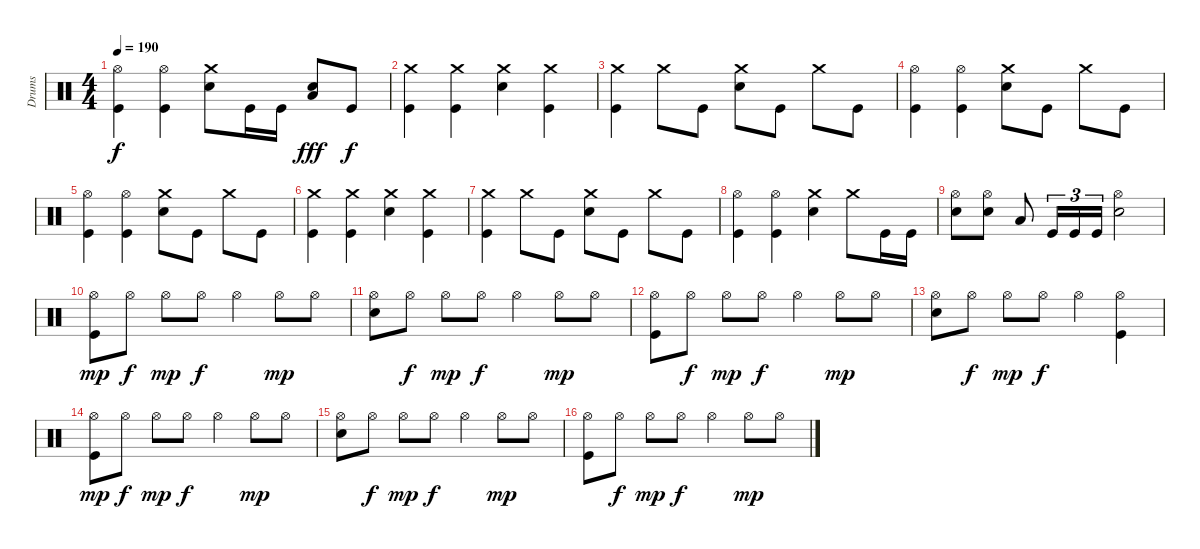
\track ("Drums" "Drums") {instrument percussion}
\staff {score}
\articulation defaults
\ts (4 4)
\tempo 190
\clef neutral
\ks c
("Hi-Hat (open)" "Kick (hit)").4{dy f} ("Hi-Hat (open)" "Kick (hit)").4 ("Crash medium (hit)" "Electric Snare (hit)").8 "Kick (hit)".16 "Kick (hit)".16 ("Low Tom (hit)" "Electric Snare (hit)").8{dy fff} "Kick (hit)".8{dy f} |
("Crash medium (hit)" "Kick (hit)").4 ("Crash medium (hit)" "Kick (hit)").4 ("Crash medium (hit)" "Electric Snare (hit)").4 ("Crash medium (hit)" "Kick (hit)").4 |
("Crash medium (hit)" "Kick (hit)").4 "Crash medium (hit)".8 "Kick (hit)".8 ("Crash medium (hit)" "Electric Snare (hit)").8 "Kick (hit)".8 "Crash medium (hit)".8 "Kick (hit)".8 |
("Hi-Hat (open)" "Kick (hit)").4 ("Hi-Hat (open)" "Kick (hit)").4 ("Crash medium (hit)" "Electric Snare (hit)").8 "Kick (hit)".8 "Crash medium (hit)".8 "Kick (hit)".8 |
("Hi-Hat (open)" "Kick (hit)").4 ("Hi-Hat (open)" "Kick (hit)").4 ("Crash medium (hit)" "Electric Snare (hit)").8 "Kick (hit)".8 "Crash medium (hit)".8 "Kick (hit)".8 |
("Crash medium (hit)" "Kick (hit)").4 ("Crash medium (hit)" "Kick (hit)").4 ("Crash medium (hit)" "Electric Snare (hit)").4 ("Crash medium (hit)" "Kick (hit)").4 |
("Crash medium (hit)" "Kick (hit)").4 "Crash medium (hit)".8 "Kick (hit)".8 ("Crash medium (hit)" "Electric Snare (hit)").8 "Kick (hit)".8 "Crash medium (hit)".8 "Kick (hit)".8 |
("Hi-Hat (open)" "Kick (hit)").4 ("Hi-Hat (open)" "Kick (hit)").4 ("Crash medium (hit)" "Electric Snare (hit)").4 "Crash medium (hit)".8 "Kick (hit)".16 "Kick (hit)".16 |
("Hi-Hat (open)" "Electric Snare (hit)").8 ("Hi-Hat (open)" "Electric Snare (hit)").8 "Low Tom (hit)".8 "Kick (hit)".16{tu (3 2)} "Kick (hit)".16{tu (3 2)} "Kick (hit)".16{tu (3 2)} ("Hi-Hat (open)" "Electric Snare (hit)").2 |
("Hi-Hat (open)" "Kick (hit)").8{dy mp} "Hi-Hat (open)".8{dy f} "Hi-Hat (open)".8{dy mp} "Hi-Hat (open)".8{dy f} "Hi-Hat (open)".4 "Hi-Hat (open)".8{dy mp} "Hi-Hat (open)".8 |
("Hi-Hat (open)" "Electric Snare (hit)").8 "Hi-Hat (open)".8{dy f} "Hi-Hat (open)".8{dy mp} "Hi-Hat (open)".8{dy f} "Hi-Hat (open)".4 "Hi-Hat (open)".8{dy mp} "Hi-Hat (open)".8 |
("Hi-Hat (open)" "Kick (hit)").8 "Hi-Hat (open)".8{dy f} "Hi-Hat (open)".8{dy mp} "Hi-Hat (open)".8{dy f} "Hi-Hat (open)".4 "Hi-Hat (open)".8{dy mp} "Hi-Hat (open)".8 |
("Hi-Hat (open)" "Electric Snare (hit)").8 "Hi-Hat (open)".8{dy f} "Hi-Hat (open)".8{dy mp} "Hi-Hat (open)".8{dy f} "Hi-Hat (open)".4 ("Hi-Hat (open)" "Kick (hit)").4 |
("Hi-Hat (open)" "Kick (hit)").8{dy mp} "Hi-Hat (open)".8{dy f} "Hi-Hat (open)".8{dy mp} "Hi-Hat (open)".8{dy f} "Hi-Hat (open)".4 "Hi-Hat (open)".8{dy mp} "Hi-Hat (open)".8 |
("Hi-Hat (open)" "Electric Snare (hit)").8 "Hi-Hat (open)".8{dy f} "Hi-Hat (open)".8{dy mp} "Hi-Hat (open)".8{dy f} "Hi-Hat (open)".4 "Hi-Hat (open)".8{dy mp} "Hi-Hat (open)".8 |
("Hi-Hat (open)" "Kick (hit)").8 "Hi-Hat (open)".8{dy f} "Hi-Hat (open)".8{dy mp} "Hi-Hat (open)".8{dy f} "Hi-Hat (open)".4 "Hi-Hat (open)".8{dy mp} "Hi-Hat (open)".8
